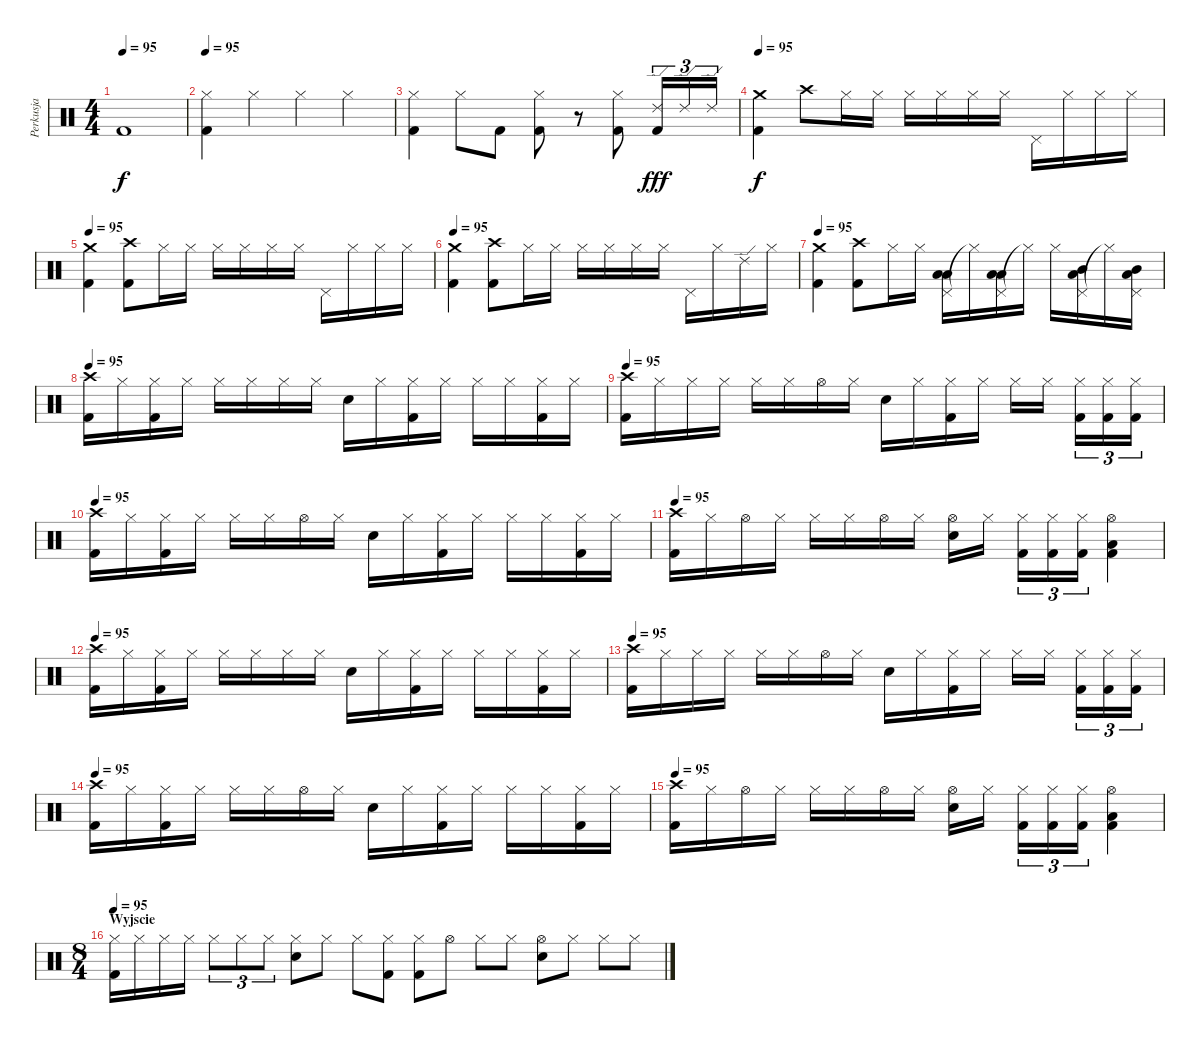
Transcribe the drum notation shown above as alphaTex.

\track ("Perkusja" "Perkusja") {instrument percussion}
\staff {score}
\articulation defaults
\ts (4 4)
\tempo 95
\clef neutral
\ks c "Kick (hit) 2".1{dy f}
|
\tempo 95
("Hi-Hat (closed)" "Kick (hit) 2").4 "Hi-Hat (closed)".4 "Hi-Hat (closed)".4 "Hi-Hat (closed)".4 |
("Hi-Hat (closed)" "Kick (hit) 2").4 "Hi-Hat (closed)".8 "Kick (hit) 2".8 ("Hi-Hat (closed)" "Kick (hit) 2").8 r.8 ("Hi-Hat (closed)" "Kick (hit) 2").8 ("Ride (edge) 2" "Kick (hit) 2").16{tu (3 2) dy fff} "Ride (edge) 2".16{tu (3 2)} "Ride (edge) 2".16{tu (3 2)} |
\tempo 95
("Crash medium (hit)" "Kick (hit) 2").4{dy f} "Crash high (hit)".8 "Hi-Hat (closed)".16 "Hi-Hat (closed)".16 "Hi-Hat (closed)".16 "Hi-Hat (closed)".16 "Hi-Hat (closed)".16 "Hi-Hat (closed)".16 "Pedal Hi-Hat (hit)".16 "Hi-Hat (closed)".16 "Hi-Hat (closed)".16 "Hi-Hat (closed)".16 |
\tempo 95
("Crash medium (hit)" "Kick (hit) 2").4 ("Crash high (hit)" "Kick (hit) 2").8 "Hi-Hat (closed)".16 "Hi-Hat (closed)".16 "Hi-Hat (closed)".16 "Hi-Hat (closed)".16 "Hi-Hat (closed)".16 "Hi-Hat (closed)".16 "Pedal Hi-Hat (hit)".16 "Hi-Hat (closed)".16 "Hi-Hat (closed)".16 "Hi-Hat (closed)".16 |
\tempo 95
("Crash medium (hit)" "Kick (hit) 2").4 ("Crash high (hit)" "Kick (hit) 2").8 "Hi-Hat (closed)".16 "Hi-Hat (closed)".16 "Hi-Hat (closed)".16 "Hi-Hat (closed)".16 "Hi-Hat (closed)".16 "Hi-Hat (closed)".16 "Pedal Hi-Hat (hit)".16 "Hi-Hat (closed)".16 "Ride (edge) 2".16 "Hi-Hat (closed)".16 |
\tempo 95
("Crash medium (hit)" "Kick (hit) 2").4 ("Crash high (hit)" "Kick (hit) 2").8 "Hi-Hat (closed)".16 "Hi-Hat (closed)".16 ("Pedal Hi-Hat (hit)" "Low Floor Tom (hit)" "Low Tom (hit)").16 "Hi-Hat (closed)"{t}.16 ("Pedal Hi-Hat (hit)" "Low Floor Tom (hit)" "Low Tom (hit)").16 "Hi-Hat (closed)"{t}.16 "Hi-Hat (closed)".16 ("Pedal Hi-Hat (hit)" "Low Floor Tom (hit)" "Mid Tom (hit)").16 "Hi-Hat (closed)"{t}.16 ("Pedal Hi-Hat (hit)" "Low Floor Tom (hit)" "Mid Tom (hit)").16 |
\tempo 95
("Crash high (hit)" "Kick (hit) 2").16 "Hi-Hat (closed)".16 ("Hi-Hat (closed)" "Kick (hit) 2").16 "Hi-Hat (closed)".16 "Hi-Hat (closed)".16 "Hi-Hat (closed)".16 "Hi-Hat (closed)".16 "Hi-Hat (closed)".16 "Electric Snare (hit)".16 "Hi-Hat (closed)".16 ("Hi-Hat (closed)" "Kick (hit) 2").16 "Hi-Hat (closed)".16 "Hi-Hat (closed)".16 "Hi-Hat (closed)".16 ("Hi-Hat (closed)" "Kick (hit) 2").16 "Hi-Hat (closed)".16 |
\tempo 95
("Crash high (hit)" "Kick (hit) 2").16 "Hi-Hat (closed)".16 "Hi-Hat (closed)".16 "Hi-Hat (closed)".16 "Hi-Hat (closed)".16 "Hi-Hat (closed)".16 "Hi-Hat (open)".16 "Hi-Hat (closed)".16 "Electric Snare (hit)".16 "Hi-Hat (closed)".16 ("Hi-Hat (closed)" "Kick (hit) 2").16 "Hi-Hat (closed)".16 "Hi-Hat (closed)".16 "Hi-Hat (closed)".16 ("Hi-Hat (closed)" "Kick (hit) 2").16{tu (3 2)} ("Hi-Hat (closed)" "Kick (hit) 2").16{tu (3 2)} ("Hi-Hat (closed)" "Kick (hit) 2").16{tu (3 2)} |
\tempo 95
("Crash high (hit)" "Kick (hit) 2").16 "Hi-Hat (closed)".16 ("Hi-Hat (closed)" "Kick (hit) 2").16 "Hi-Hat (closed)".16 "Hi-Hat (closed)".16 "Hi-Hat (closed)".16 "Hi-Hat (open)".16 "Hi-Hat (closed)".16 "Electric Snare (hit)".16 "Hi-Hat (closed)".16 ("Hi-Hat (closed)" "Kick (hit) 2").16 "Hi-Hat (closed)".16 "Hi-Hat (closed)".16 "Hi-Hat (closed)".16 ("Hi-Hat (closed)" "Kick (hit) 2").16 "Hi-Hat (closed)".16 |
\tempo 95
("Crash high (hit)" "Kick (hit) 2").16 "Hi-Hat (closed)".16 "Hi-Hat (open)".16 "Hi-Hat (closed)".16 "Hi-Hat (closed)".16 "Hi-Hat (closed)".16 "Hi-Hat (open)".16 "Hi-Hat (closed)".16 ("Hi-Hat (open)" "Electric Snare (hit)").16 "Hi-Hat (closed)".16 ("Hi-Hat (closed)" "Kick (hit) 2").16{tu (3 2)} ("Hi-Hat (closed)" "Kick (hit) 2").16{tu (3 2)} ("Hi-Hat (closed)" "Kick (hit) 2").16{tu (3 2)} ("Hi-Hat (open)" "Low Floor Tom (hit)" "Kick (hit) 2").4 |
\tempo 95
("Crash high (hit)" "Kick (hit) 2").16 "Hi-Hat (closed)".16 ("Hi-Hat (closed)" "Kick (hit) 2").16 "Hi-Hat (closed)".16 "Hi-Hat (closed)".16 "Hi-Hat (closed)".16 "Hi-Hat (closed)".16 "Hi-Hat (closed)".16 "Electric Snare (hit)".16 "Hi-Hat (closed)".16 ("Hi-Hat (closed)" "Kick (hit) 2").16 "Hi-Hat (closed)".16 "Hi-Hat (closed)".16 "Hi-Hat (closed)".16 ("Hi-Hat (closed)" "Kick (hit) 2").16 "Hi-Hat (closed)".16 |
\tempo 95
("Crash high (hit)" "Kick (hit) 2").16 "Hi-Hat (closed)".16 "Hi-Hat (closed)".16 "Hi-Hat (closed)".16 "Hi-Hat (closed)".16 "Hi-Hat (closed)".16 "Hi-Hat (open)".16 "Hi-Hat (closed)".16 "Electric Snare (hit)".16 "Hi-Hat (closed)".16 ("Hi-Hat (closed)" "Kick (hit) 2").16 "Hi-Hat (closed)".16 "Hi-Hat (closed)".16 "Hi-Hat (closed)".16 ("Hi-Hat (closed)" "Kick (hit) 2").16{tu (3 2)} ("Hi-Hat (closed)" "Kick (hit) 2").16{tu (3 2)} ("Hi-Hat (closed)" "Kick (hit) 2").16{tu (3 2)} |
\tempo 95
("Crash high (hit)" "Kick (hit) 2").16 "Hi-Hat (closed)".16 ("Hi-Hat (closed)" "Kick (hit) 2").16 "Hi-Hat (closed)".16 "Hi-Hat (closed)".16 "Hi-Hat (closed)".16 "Hi-Hat (open)".16 "Hi-Hat (closed)".16 "Electric Snare (hit)".16 "Hi-Hat (closed)".16 ("Hi-Hat (closed)" "Kick (hit) 2").16 "Hi-Hat (closed)".16 "Hi-Hat (closed)".16 "Hi-Hat (closed)".16 ("Hi-Hat (closed)" "Kick (hit) 2").16 "Hi-Hat (closed)".16 |
\tempo 95
("Crash high (hit)" "Kick (hit) 2").16 "Hi-Hat (closed)".16 "Hi-Hat (open)".16 "Hi-Hat (closed)".16 "Hi-Hat (closed)".16 "Hi-Hat (closed)".16 "Hi-Hat (open)".16 "Hi-Hat (closed)".16 ("Hi-Hat (open)" "Electric Snare (hit)").16 "Hi-Hat (closed)".16 ("Hi-Hat (closed)" "Kick (hit) 2").16{tu (3 2)} ("Hi-Hat (closed)" "Kick (hit) 2").16{tu (3 2)} ("Hi-Hat (closed)" "Kick (hit) 2").16{tu (3 2)} ("Hi-Hat (open)" "Low Floor Tom (hit)" "Kick (hit) 2").4 |
\ts (8 4)
\section ("" "Wyjscie")
\tempo 95
("Hi-Hat (closed)" "Kick (hit) 2").16 "Hi-Hat (closed)".16 "Hi-Hat (closed)".16 "Hi-Hat (closed)".16 "Hi-Hat (closed)".8{tu (3 2)} "Hi-Hat (closed)".8{tu (3 2)} "Hi-Hat (closed)".8{tu (3 2)} ("Hi-Hat (closed)" "Electric Snare (hit)").8 "Hi-Hat (closed)".8 "Hi-Hat (closed)".8 ("Hi-Hat (closed)" "Kick (hit) 2").8 ("Hi-Hat (closed)" "Kick (hit) 2").8 "Hi-Hat (open)".8 "Hi-Hat (closed)".8 "Hi-Hat (closed)".8 ("Hi-Hat (open)" "Electric Snare (hit)").8 "Hi-Hat (closed)".8 "Hi-Hat (closed)".8 "Hi-Hat (closed)".8
